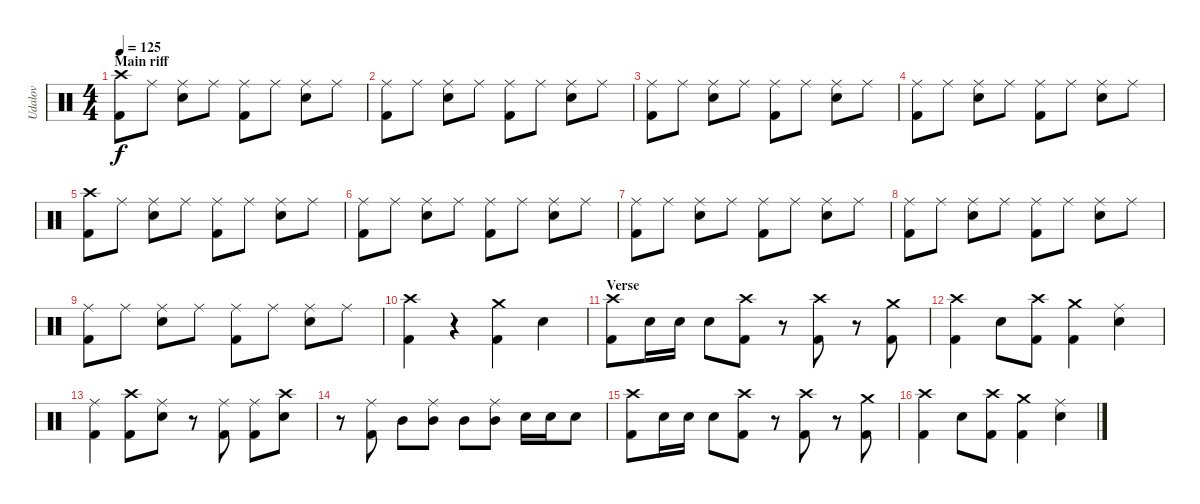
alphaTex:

\track ("Udalov" "Udalov") {instrument percussion}
\staff {score}
\articulation defaults
\ts (4 4)
\section ("" "Main riff")
\tempo 125
\clef neutral
\ks c
("Kick (hit) 2" "Crash high (hit)").8{dy f} "Ride (middle)".8 ("Snare (hit) 2" "Ride (middle)").8 "Ride (middle)".8 ("Kick (hit) 2" "Ride (middle)").8 "Ride (middle)".8 ("Snare (hit) 2" "Ride (middle)").8 "Ride (middle)".8 |
("Kick (hit) 2" "Ride (middle)").8 "Ride (middle)".8 ("Snare (hit) 2" "Ride (middle)").8 "Ride (middle)".8 ("Kick (hit) 2" "Ride (middle)").8 "Ride (middle)".8 ("Snare (hit) 2" "Ride (middle)").8 "Ride (middle)".8 |
("Kick (hit) 2" "Ride (middle)").8 "Ride (middle)".8 ("Snare (hit) 2" "Ride (middle)").8 "Ride (middle)".8 ("Kick (hit) 2" "Ride (middle)").8 "Ride (middle)".8 ("Snare (hit) 2" "Ride (middle)").8 "Ride (middle)".8 |
("Kick (hit) 2" "Ride (middle)").8 "Ride (middle)".8 ("Snare (hit) 2" "Ride (middle)").8 "Ride (middle)".8 ("Kick (hit) 2" "Ride (middle)").8 "Ride (middle)".8 ("Snare (hit) 2" "Ride (middle)").8 "Ride (middle)".8 |
("Crash high (hit)" "Kick (hit) 2").8 "Ride (middle)".8 ("Snare (hit) 2" "Ride (middle)").8 "Ride (middle)".8 ("Kick (hit) 2" "Ride (middle)").8 "Ride (middle)".8 ("Snare (hit) 2" "Ride (middle)").8 "Ride (middle)".8 |
("Kick (hit) 2" "Ride (middle)").8 "Ride (middle)".8 ("Snare (hit) 2" "Ride (middle)").8 "Ride (middle)".8 ("Kick (hit) 2" "Ride (middle)").8 "Ride (middle)".8 ("Snare (hit) 2" "Ride (middle)").8 "Ride (middle)".8 |
("Kick (hit) 2" "Ride (middle)").8 "Ride (middle)".8 ("Snare (hit) 2" "Ride (middle)").8 "Ride (middle)".8 ("Kick (hit) 2" "Ride (middle)").8 "Ride (middle)".8 ("Snare (hit) 2" "Ride (middle)").8 "Ride (middle)".8 |
("Kick (hit) 2" "Ride (middle)").8 "Ride (middle)".8 ("Snare (hit) 2" "Ride (middle)").8 "Ride (middle)".8 ("Kick (hit) 2" "Ride (middle)").8 "Ride (middle)".8 ("Snare (hit) 2" "Ride (middle)").8 "Ride (middle)".8 |
("Kick (hit) 2" "Ride (middle)").8 "Ride (middle)".8 ("Snare (hit) 2" "Ride (middle)").8 "Ride (middle)".8 ("Kick (hit) 2" "Ride (middle)").8 "Ride (middle)".8 ("Snare (hit) 2" "Ride (middle)").8 "Ride (middle)".8 |
("Kick (hit) 2" "Crash high (hit)").4 r.4 ("Kick (hit) 2" "Crash medium (hit)").4 "Snare (hit) 2".4 |
\section ("" "Verse")
("Kick (hit) 2" "Crash high (hit)").8 "Snare (hit) 2".16 "Electric Snare (hit)".16 "Snare (hit) 2".8 ("Kick (hit) 2" "Crash high (hit)").8 r.8 ("Kick (hit) 2" "Crash high (hit)").8 r.8 ("Kick (hit) 2" "Crash medium (hit)").8 |
("Kick (hit) 2" "Crash high (hit)").4 "Snare (hit) 2".8 ("Kick (hit) 2" "Crash high (hit)").8 ("Kick (hit) 2" "Crash medium (hit)").4 ("Snare (hit) 2" "Ride (middle)").4 |
("Kick (hit) 2" "Ride (middle)").4 ("Kick (hit) 2" "Crash high (hit)").8 ("Snare (hit) 2" "Ride (middle)").8 r.8 ("Kick (hit) 2" "Ride (middle)").8 ("Kick (hit) 2" "Ride (middle)").8 ("Snare (hit) 2" "Crash high (hit)").8 |
r.8 ("Kick (hit) 2" "Ride (middle)").8 "Mid Tom (hit)".8 ("Mid Tom (hit)" "Ride (middle)").8 "Mid Tom (hit)".8 ("Mid Tom (hit)" "Ride (middle)").8 "Electric Snare (hit)".16 "Electric Snare (hit)".16 "Electric Snare (hit)".8 |
("Kick (hit) 2" "Crash high (hit)").8 "Snare (hit) 2".16 "Electric Snare (hit)".16 "Snare (hit) 2".8 ("Kick (hit) 2" "Crash high (hit)").8 r.8 ("Kick (hit) 2" "Crash high (hit)").8 r.8 ("Kick (hit) 2" "Crash medium (hit)").8 |
("Kick (hit) 2" "Crash high (hit)").4 "Snare (hit) 2".8 ("Kick (hit) 2" "Crash high (hit)").8 ("Kick (hit) 2" "Crash medium (hit)").4 ("Snare (hit) 2" "Ride (middle)").4
